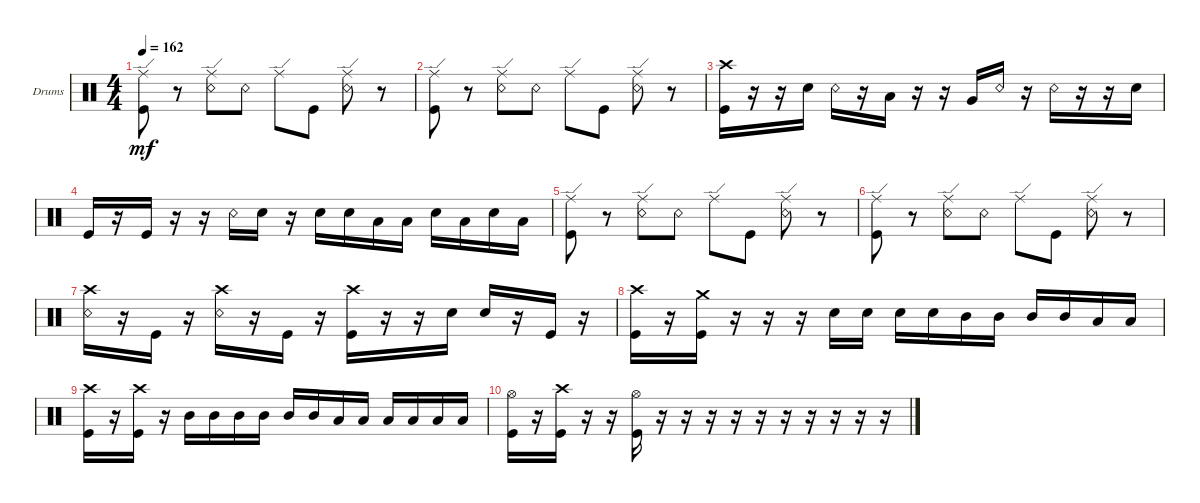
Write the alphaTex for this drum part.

\defaultSystemsLayout 4
\bracketExtendMode groupsimilarinstruments
\firstSystemTrackNameOrientation horizontal
\otherSystemsTrackNameOrientation horizontal
\track ("Drumkit" "Drums") {instrument percussion}
\staff {score}
\articulation defaults
\ts (4 4)
\tempo 162
\clef neutral
\ks c
("Ride (edge)" "Kick (hit)").8{dy mf} r.8 ("Ride (edge)" "Snare (rim shot)").8 "Snare (rim shot)".8 "Ride (edge)".8 "Kick (hit)".8 ("Snare (rim shot)" "Ride (edge)").8 r.8 |
("Ride (edge)" "Kick (hit)").8 r.8 ("Ride (edge)" "Snare (rim shot)").8 "Snare (rim shot)".8 "Ride (edge)".8 "Kick (hit)".8 ("Snare (rim shot)" "Ride (edge)").8 r.8 |
("Kick (hit)" "Crash high (hit)").16 r.16 r.16 "Snare (hit) 2".16 "Snare (rim shot)".16 r.16 "Low Tom (hit)".16 r.16 r.16 "Very Low Tom (hit)".16 "Snare (rim shot)".16 r.16 "Snare (rim shot)".16 r.16 r.16 "Snare (hit) 2".16 |
"Kick (hit)".16 r.16 "Kick (hit)".16 r.16 r.16 "Snare (rim shot)".16 "Snare (hit) 2".16 r.16 "Snare (hit) 2".16 "Snare (hit) 2".16 "Low Tom (hit)".16 "Low Tom (hit)".16 "Snare (hit) 2".16 "Low Tom (hit)".16 "Snare (hit) 2".16 "Low Tom (hit)".16 |
("Ride (edge)" "Kick (hit)").8 r.8 ("Ride (edge)" "Snare (rim shot)").8 "Snare (rim shot)".8 "Ride (edge)".8 "Kick (hit)".8 ("Snare (rim shot)" "Ride (edge)").8 r.8 |
("Ride (edge)" "Kick (hit)").8 r.8 ("Ride (edge)" "Snare (rim shot)").8 "Snare (rim shot)".8 "Ride (edge)".8 "Kick (hit)".8 ("Snare (rim shot)" "Ride (edge)").8 r.8 |
("Snare (rim shot)" "Crash high (hit)").16 r.16 "Kick (hit)".16 r.16 ("Snare (rim shot)" "Crash high (hit)").16 r.16 "Kick (hit)".16 r.16 ("Kick (hit)" "Crash high (hit)").16 r.16 r.16 "Snare (hit) 2".16 "Snare (hit) 2".16 r.16 "Kick (hit)".16 r.16 |
("Kick (hit)" "Crash high (hit)").16 r.16 ("Kick (hit)" "Crash medium (hit)").16 r.16 r.16 r.16 "Snare (hit) 2".16 "Snare (hit) 2".16 "Snare (hit) 2".16 "Snare (hit) 2".16 "Mid Tom (hit)".16 "Mid Tom (hit)".16 "Mid Tom (hit)".16 "Mid Tom (hit)".16 "Low Tom (hit)".16 "Low Tom (hit)".16 |
("Kick (hit)" "Crash high (hit)").16 r.16 ("Kick (hit)" "Crash high (hit)").16 r.16 "Mid Tom (hit)".16 "Mid Tom (hit)".16 "Mid Tom (hit)".16 "Mid Tom (hit)".16 "Mid Tom (hit)".16 "Mid Tom (hit)".16 "Low Tom (hit)".16 "Low Tom (hit)".16 "Low Tom (hit)".16 "Low Tom (hit)".16 "Low Tom (hit)".16 "Low Tom (hit)".16 |
("Kick (hit)" "Hi-Hat (open)").16 r.16 ("Kick (hit)" "Crash high (hit)").16 r.16 r.16 ("Kick (hit)" "Hi-Hat (open)").16 r.16 r.16 r.16 r.16 r.16 r.16 r.16 r.16 r.16 r.16
